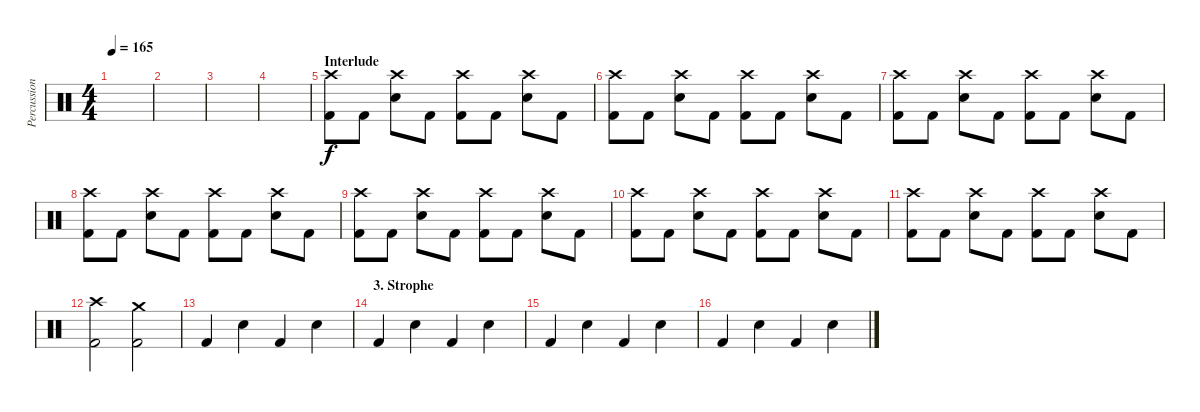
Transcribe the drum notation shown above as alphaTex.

\track ("Percussion" "Percussion") {instrument percussion}
\staff {score}
\articulation defaults
\ts (4 4)
\tempo 165
\clef neutral
\ks c
|
|
|
|
\section ("" "Interlude")
("Crash high (hit)" "Kick (hit) 2").8 "Kick (hit) 2".8 ("Crash high (hit)" "Electric Snare (hit)").8 "Kick (hit) 2".8 ("Crash high (hit)" "Kick (hit) 2").8 "Kick (hit) 2".8 ("Crash high (hit)" "Electric Snare (hit)").8 "Kick (hit) 2".8 |
("Crash high (hit)" "Kick (hit) 2").8 "Kick (hit) 2".8 ("Crash high (hit)" "Electric Snare (hit)").8 "Kick (hit) 2".8 ("Crash high (hit)" "Kick (hit) 2").8 "Kick (hit) 2".8 ("Crash high (hit)" "Electric Snare (hit)").8 "Kick (hit) 2".8 |
("Crash high (hit)" "Kick (hit) 2").8 "Kick (hit) 2".8 ("Crash high (hit)" "Electric Snare (hit)").8 "Kick (hit) 2".8 ("Crash high (hit)" "Kick (hit) 2").8 "Kick (hit) 2".8 ("Crash high (hit)" "Electric Snare (hit)").8 "Kick (hit) 2".8 |
("Crash high (hit)" "Kick (hit) 2").8 "Kick (hit) 2".8 ("Crash high (hit)" "Electric Snare (hit)").8 "Kick (hit) 2".8 ("Crash high (hit)" "Kick (hit) 2").8 "Kick (hit) 2".8 ("Crash high (hit)" "Electric Snare (hit)").8 "Kick (hit) 2".8 |
("Crash high (hit)" "Kick (hit) 2").8 "Kick (hit) 2".8 ("Crash high (hit)" "Electric Snare (hit)").8 "Kick (hit) 2".8 ("Crash high (hit)" "Kick (hit) 2").8 "Kick (hit) 2".8 ("Crash high (hit)" "Electric Snare (hit)").8 "Kick (hit) 2".8 |
("Crash high (hit)" "Kick (hit) 2").8 "Kick (hit) 2".8 ("Crash high (hit)" "Electric Snare (hit)").8 "Kick (hit) 2".8 ("Crash high (hit)" "Kick (hit) 2").8 "Kick (hit) 2".8 ("Crash high (hit)" "Electric Snare (hit)").8 "Kick (hit) 2".8 |
("Crash high (hit)" "Kick (hit) 2").8 "Kick (hit) 2".8 ("Crash high (hit)" "Electric Snare (hit)").8 "Kick (hit) 2".8 ("Crash high (hit)" "Kick (hit) 2").8 "Kick (hit) 2".8 ("Crash high (hit)" "Electric Snare (hit)").8 "Kick (hit) 2".8 |
("Crash high (hit)" "Kick (hit) 2").2 ("Crash medium (hit)" "Kick (hit) 2").2 |
"Kick (hit) 2".4 "Electric Snare (hit)".4 "Kick (hit) 2".4 "Electric Snare (hit)".4 |
\section ("" "3. Strophe")
"Kick (hit) 2".4 "Electric Snare (hit)".4 "Kick (hit) 2".4 "Electric Snare (hit)".4 |
"Kick (hit) 2".4 "Electric Snare (hit)".4 "Kick (hit) 2".4 "Electric Snare (hit)".4 |
"Kick (hit) 2".4 "Electric Snare (hit)".4 "Kick (hit) 2".4 "Electric Snare (hit)".4
